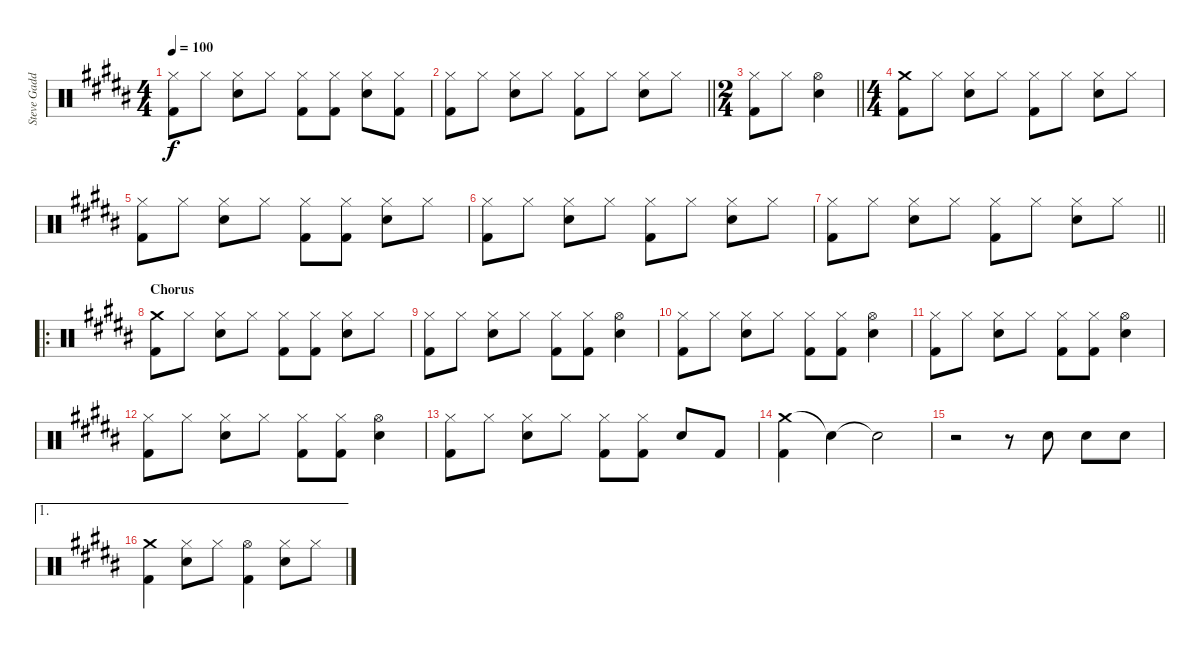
\track ("Steve Gadd Drums" "Steve Gadd") {instrument percussion}
\staff {score}
\articulation defaults
\ts (4 4)
\tempo 100
\clef neutral
\ks b
("Hi-Hat (closed)" "Kick (hit) 2").8{dy f} "Hi-Hat (closed)".8 ("Hi-Hat (closed)" "Snare (hit) 2").8 "Hi-Hat (closed)".8 ("Hi-Hat (closed)" "Kick (hit) 2").8 ("Hi-Hat (closed)" "Kick (hit) 2").8 ("Hi-Hat (closed)" "Snare (hit) 2").8 ("Hi-Hat (closed)" "Kick (hit) 2").8 |
\barLineRight lightlight
("Hi-Hat (closed)" "Kick (hit) 2").8 "Hi-Hat (closed)".8 ("Hi-Hat (closed)" "Snare (hit) 2").8 "Hi-Hat (closed)".8 ("Hi-Hat (closed)" "Kick (hit) 2").8 "Hi-Hat (closed)".8 ("Hi-Hat (closed)" "Snare (hit) 2").8 "Hi-Hat (closed)".8 |
\ts (2 4)
\barLineRight lightlight
("Hi-Hat (closed)" "Kick (hit) 2").8 "Hi-Hat (closed)".8 ("Hi-Hat (open)" "Snare (hit) 2").4 |
\ts (4 4)
("Crash medium (hit)" "Kick (hit) 2").8 "Hi-Hat (closed)".8 ("Hi-Hat (closed)" "Snare (hit) 2").8 "Hi-Hat (closed)".8 ("Hi-Hat (closed)" "Kick (hit) 2").8 "Hi-Hat (closed)".8 ("Hi-Hat (closed)" "Snare (hit) 2").8 "Hi-Hat (closed)".8 |
("Hi-Hat (closed)" "Kick (hit) 2").8 "Hi-Hat (closed)".8 ("Hi-Hat (closed)" "Snare (hit) 2").8 "Hi-Hat (closed)".8 ("Hi-Hat (closed)" "Kick (hit) 2").8 ("Hi-Hat (closed)" "Kick (hit) 2").8 ("Hi-Hat (closed)" "Snare (hit) 2").8 "Hi-Hat (closed)".8 |
("Hi-Hat (closed)" "Kick (hit) 2").8 "Hi-Hat (closed)".8 ("Hi-Hat (closed)" "Snare (hit) 2").8 "Hi-Hat (closed)".8 ("Hi-Hat (closed)" "Kick (hit) 2").8 "Hi-Hat (closed)".8 ("Hi-Hat (closed)" "Snare (hit) 2").8 "Hi-Hat (closed)".8 |
\barLineRight lightlight
("Hi-Hat (closed)" "Kick (hit) 2").8 "Hi-Hat (closed)".8 ("Hi-Hat (closed)" "Snare (hit) 2").8 "Hi-Hat (closed)".8 ("Hi-Hat (closed)" "Kick (hit) 2").8 "Hi-Hat (closed)".8 ("Hi-Hat (closed)" "Snare (hit) 2").8 "Hi-Hat (closed)".8 |
\ro
\section ("" "Chorus")
("Crash medium (hit)" "Kick (hit) 2").8 "Hi-Hat (closed)".8 ("Hi-Hat (closed)" "Snare (hit) 2").8 "Hi-Hat (closed)".8 ("Hi-Hat (closed)" "Kick (hit) 2").8 ("Hi-Hat (closed)" "Kick (hit) 2").8 ("Hi-Hat (closed)" "Snare (hit) 2").8 "Hi-Hat (closed)".8 |
("Hi-Hat (closed)" "Kick (hit) 2").8 "Hi-Hat (closed)".8 ("Hi-Hat (closed)" "Snare (hit) 2").8 "Hi-Hat (closed)".8 ("Hi-Hat (closed)" "Kick (hit) 2").8 ("Hi-Hat (closed)" "Kick (hit) 2").8 ("Hi-Hat (open)" "Snare (hit) 2").4 |
("Hi-Hat (closed)" "Kick (hit) 2").8 "Hi-Hat (closed)".8 ("Hi-Hat (closed)" "Snare (hit) 2").8 "Hi-Hat (closed)".8 ("Hi-Hat (closed)" "Kick (hit) 2").8 ("Hi-Hat (closed)" "Kick (hit) 2").8 ("Hi-Hat (open)" "Snare (hit) 2").4 |
("Hi-Hat (closed)" "Kick (hit) 2").8 "Hi-Hat (closed)".8 ("Hi-Hat (closed)" "Snare (hit) 2").8 "Hi-Hat (closed)".8 ("Hi-Hat (closed)" "Kick (hit) 2").8 ("Hi-Hat (closed)" "Kick (hit) 2").8 ("Hi-Hat (open)" "Snare (hit) 2").4 |
("Hi-Hat (closed)" "Kick (hit) 2").8 "Hi-Hat (closed)".8 ("Hi-Hat (closed)" "Snare (hit) 2").8 "Hi-Hat (closed)".8 ("Hi-Hat (closed)" "Kick (hit) 2").8 ("Hi-Hat (closed)" "Kick (hit) 2").8 ("Hi-Hat (open)" "Snare (hit) 2").4 |
("Hi-Hat (closed)" "Kick (hit) 2").8 "Hi-Hat (closed)".8 ("Hi-Hat (closed)" "Snare (hit) 2").8 "Hi-Hat (closed)".8 ("Hi-Hat (closed)" "Kick (hit) 2").8 ("Hi-Hat (closed)" "Kick (hit) 2").8 "Snare (hit) 2".8 "Kick (hit) 2".8 |
("Crash medium (hit)" "Kick (hit) 2").4 "Snare (hit)"{t}.4 "Snare (hit)"{t}.2 |
r.2 r.8 "Snare (hit) 2".8 "Snare (hit) 2".8 "Snare (hit) 2".8 |
\ae 1
("Crash medium (hit)" "Kick (hit) 2").4 ("Hi-Hat (closed)" "Snare (hit) 2").8 "Hi-Hat (closed)".8 ("Hi-Hat (open)" "Kick (hit) 2").4 ("Hi-Hat (closed)" "Snare (hit) 2").8 "Hi-Hat (closed)".8
